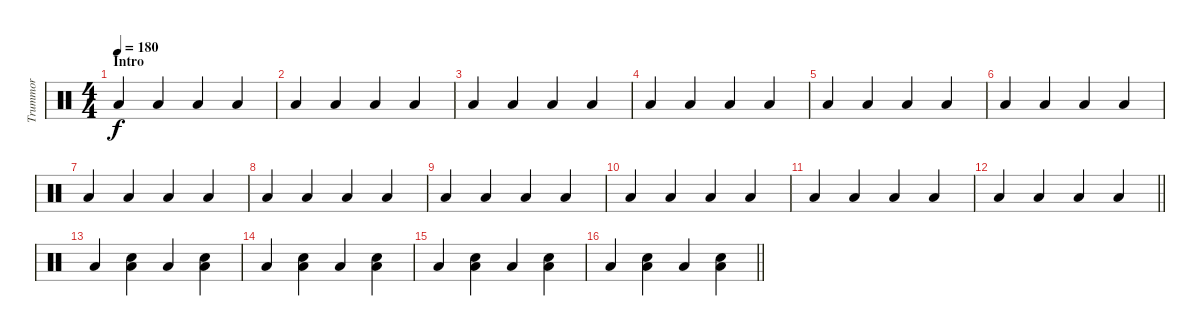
\track ("Trummor" "Trummor") {instrument percussion}
\staff {score}
\articulation defaults
\ts (4 4)
\section ("" "Intro")
\tempo 180
\clef neutral
\ks c "Low Tom (hit)".4{dy f} "Low Tom (hit)".4 "Low Tom (hit)".4 "Low Tom (hit)".4
|
"Low Tom (hit)".4 "Low Tom (hit)".4 "Low Tom (hit)".4 "Low Tom (hit)".4 |
"Low Tom (hit)".4 "Low Tom (hit)".4 "Low Tom (hit)".4 "Low Tom (hit)".4 |
"Low Tom (hit)".4 "Low Tom (hit)".4 "Low Tom (hit)".4 "Low Tom (hit)".4 |
"Low Tom (hit)".4 "Low Tom (hit)".4 "Low Tom (hit)".4 "Low Tom (hit)".4 |
"Low Tom (hit)".4 "Low Tom (hit)".4 "Low Tom (hit)".4 "Low Tom (hit)".4 |
"Low Tom (hit)".4 "Low Tom (hit)".4 "Low Tom (hit)".4 "Low Tom (hit)".4 |
"Low Tom (hit)".4 "Low Tom (hit)".4 "Low Tom (hit)".4 "Low Tom (hit)".4 |
"Low Tom (hit)".4 "Low Tom (hit)".4 "Low Tom (hit)".4 "Low Tom (hit)".4 |
"Low Tom (hit)".4 "Low Tom (hit)".4 "Low Tom (hit)".4 "Low Tom (hit)".4 |
"Low Tom (hit)".4 "Low Tom (hit)".4 "Low Tom (hit)".4 "Low Tom (hit)".4 |
\barLineRight lightlight "Low Tom (hit)".4 "Low Tom (hit)".4 "Low Tom (hit)".4 "Low Tom (hit)".4
|
"Low Tom (hit)".4 ("Low Tom (hit)" "Snare (hit) 2").4 "Low Tom (hit)".4 ("Low Tom (hit)" "Snare (hit) 2").4 |
"Low Tom (hit)".4 ("Low Tom (hit)" "Snare (hit) 2").4 "Low Tom (hit)".4 ("Low Tom (hit)" "Snare (hit) 2").4 |
"Low Tom (hit)".4 ("Low Tom (hit)" "Snare (hit) 2").4 "Low Tom (hit)".4 ("Low Tom (hit)" "Snare (hit) 2").4 |
\barLineRight lightlight "Low Tom (hit)".4
("Low Tom (hit)" "Snare (hit) 2").4 "Low Tom (hit)".4 ("Low Tom (hit)" "Snare (hit) 2").4
